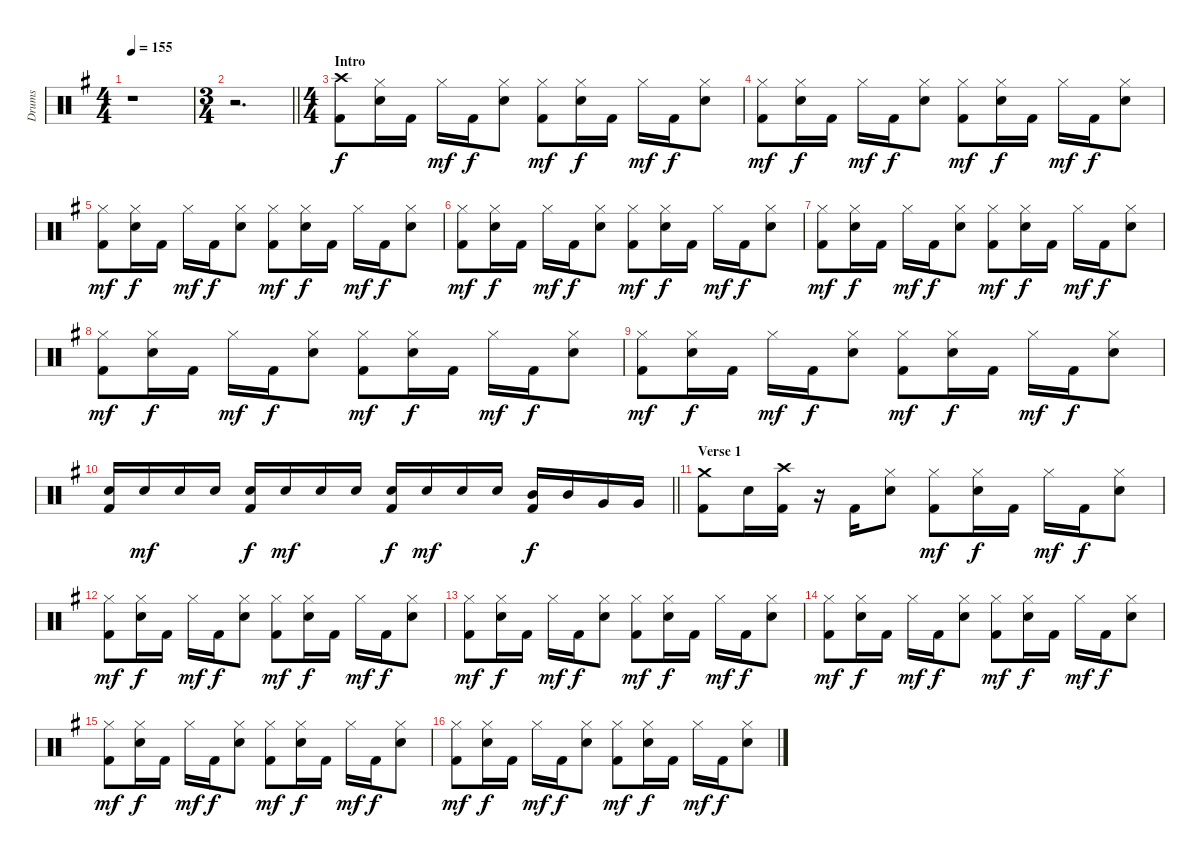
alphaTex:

\track ("Drums" "Drums") {instrument percussion}
\staff {score}
\articulation defaults
\ts (4 4)
\tempo 155
\clef neutral
\ks g
r.1{dy f} |
\ts (3 4)
\barLineRight lightlight
r.2{d} |
\ts (4 4)
\section ("" "Intro")
("Crash high (hit)" "Kick (hit) 2").8 ("Hi-Hat (closed)" "Electric Snare (hit)").16 "Kick (hit) 2".16 "Hi-Hat (closed)".16{dy mf} "Kick (hit) 2".16{dy f} ("Hi-Hat (closed)" "Electric Snare (hit)").8 ("Hi-Hat (closed)" "Kick (hit) 2").8{dy mf} ("Hi-Hat (closed)" "Electric Snare (hit)").16{dy f} "Kick (hit) 2".16 "Hi-Hat (closed)".16{dy mf} "Kick (hit) 2".16{dy f} ("Hi-Hat (closed)" "Electric Snare (hit)").8 |
("Hi-Hat (closed)" "Kick (hit) 2").8{dy mf} ("Hi-Hat (closed)" "Electric Snare (hit)").16{dy f} "Kick (hit) 2".16 "Hi-Hat (closed)".16{dy mf} "Kick (hit) 2".16{dy f} ("Hi-Hat (closed)" "Electric Snare (hit)").8 ("Hi-Hat (closed)" "Kick (hit) 2").8{dy mf} ("Hi-Hat (closed)" "Electric Snare (hit)").16{dy f} "Kick (hit) 2".16 "Hi-Hat (closed)".16{dy mf} "Kick (hit) 2".16{dy f} ("Hi-Hat (closed)" "Electric Snare (hit)").8 |
("Hi-Hat (closed)" "Kick (hit) 2").8{dy mf} ("Hi-Hat (closed)" "Electric Snare (hit)").16{dy f} "Kick (hit) 2".16 "Hi-Hat (closed)".16{dy mf} "Kick (hit) 2".16{dy f} ("Hi-Hat (closed)" "Electric Snare (hit)").8 ("Hi-Hat (closed)" "Kick (hit) 2").8{dy mf} ("Hi-Hat (closed)" "Electric Snare (hit)").16{dy f} "Kick (hit) 2".16 "Hi-Hat (closed)".16{dy mf} "Kick (hit) 2".16{dy f} ("Hi-Hat (closed)" "Electric Snare (hit)").8 |
("Hi-Hat (closed)" "Kick (hit) 2").8{dy mf} ("Hi-Hat (closed)" "Electric Snare (hit)").16{dy f} "Kick (hit) 2".16 "Hi-Hat (closed)".16{dy mf} "Kick (hit) 2".16{dy f} ("Hi-Hat (closed)" "Electric Snare (hit)").8 ("Hi-Hat (closed)" "Kick (hit) 2").8{dy mf} ("Hi-Hat (closed)" "Electric Snare (hit)").16{dy f} "Kick (hit) 2".16 "Hi-Hat (closed)".16{dy mf} "Kick (hit) 2".16{dy f} ("Hi-Hat (closed)" "Electric Snare (hit)").8 |
("Hi-Hat (closed)" "Kick (hit) 2").8{dy mf} ("Hi-Hat (closed)" "Electric Snare (hit)").16{dy f} "Kick (hit) 2".16 "Hi-Hat (closed)".16{dy mf} "Kick (hit) 2".16{dy f} ("Hi-Hat (closed)" "Electric Snare (hit)").8 ("Hi-Hat (closed)" "Kick (hit) 2").8{dy mf} ("Hi-Hat (closed)" "Electric Snare (hit)").16{dy f} "Kick (hit) 2".16 "Hi-Hat (closed)".16{dy mf} "Kick (hit) 2".16{dy f} ("Hi-Hat (closed)" "Electric Snare (hit)").8 |
("Hi-Hat (closed)" "Kick (hit) 2").8{dy mf} ("Hi-Hat (closed)" "Electric Snare (hit)").16{dy f} "Kick (hit) 2".16 "Hi-Hat (closed)".16{dy mf} "Kick (hit) 2".16{dy f} ("Hi-Hat (closed)" "Electric Snare (hit)").8 ("Hi-Hat (closed)" "Kick (hit) 2").8{dy mf} ("Hi-Hat (closed)" "Electric Snare (hit)").16{dy f} "Kick (hit) 2".16 "Hi-Hat (closed)".16{dy mf} "Kick (hit) 2".16{dy f} ("Hi-Hat (closed)" "Electric Snare (hit)").8 |
("Hi-Hat (closed)" "Kick (hit) 2").8{dy mf} ("Hi-Hat (closed)" "Electric Snare (hit)").16{dy f} "Kick (hit) 2".16 "Hi-Hat (closed)".16{dy mf} "Kick (hit) 2".16{dy f} ("Hi-Hat (closed)" "Electric Snare (hit)").8 ("Hi-Hat (closed)" "Kick (hit) 2").8{dy mf} ("Hi-Hat (closed)" "Electric Snare (hit)").16{dy f} "Kick (hit) 2".16 "Hi-Hat (closed)".16{dy mf} "Kick (hit) 2".16{dy f} ("Hi-Hat (closed)" "Electric Snare (hit)").8 |
\barLineRight lightlight
("Electric Snare (hit)" "Kick (hit) 2").16 "Electric Snare (hit)".16{dy mf} "Electric Snare (hit)".16 "Electric Snare (hit)".16 ("Electric Snare (hit)" "Kick (hit) 2").16{dy f} "Electric Snare (hit)".16{dy mf} "Electric Snare (hit)".16 "Electric Snare (hit)".16 ("Electric Snare (hit)" "Kick (hit) 2").16{dy f} "Electric Snare (hit)".16{dy mf} "Electric Snare (hit)".16 "Electric Snare (hit)".16 ("Mid Tom (hit)" "Kick (hit) 2").16{dy f} "Mid Tom (hit)".16 "Very Low Tom (hit)".16 "Very Low Tom (hit)".16 |
\section ("" "Verse 1")
("Crash medium (hit)" "Kick (hit) 2").8 "Electric Snare (hit)".16 ("Crash high (hit)" "Kick (hit) 2").16 r.16 "Kick (hit) 2".16 ("Hi-Hat (closed)" "Electric Snare (hit)").8 ("Hi-Hat (closed)" "Kick (hit) 2").8{dy mf} ("Hi-Hat (closed)" "Electric Snare (hit)").16{dy f} "Kick (hit) 2".16 "Hi-Hat (closed)".16{dy mf} "Kick (hit) 2".16{dy f} ("Hi-Hat (closed)" "Electric Snare (hit)").8 |
("Hi-Hat (closed)" "Kick (hit) 2").8{dy mf} ("Hi-Hat (closed)" "Electric Snare (hit)").16{dy f} "Kick (hit) 2".16 "Hi-Hat (closed)".16{dy mf} "Kick (hit) 2".16{dy f} ("Hi-Hat (closed)" "Electric Snare (hit)").8 ("Hi-Hat (closed)" "Kick (hit) 2").8{dy mf} ("Hi-Hat (closed)" "Electric Snare (hit)").16{dy f} "Kick (hit) 2".16 "Hi-Hat (closed)".16{dy mf} "Kick (hit) 2".16{dy f} ("Hi-Hat (closed)" "Electric Snare (hit)").8 |
("Hi-Hat (closed)" "Kick (hit) 2").8{dy mf} ("Hi-Hat (closed)" "Electric Snare (hit)").16{dy f} "Kick (hit) 2".16 "Hi-Hat (closed)".16{dy mf} "Kick (hit) 2".16{dy f} ("Hi-Hat (closed)" "Electric Snare (hit)").8 ("Hi-Hat (closed)" "Kick (hit) 2").8{dy mf} ("Hi-Hat (closed)" "Electric Snare (hit)").16{dy f} "Kick (hit) 2".16 "Hi-Hat (closed)".16{dy mf} "Kick (hit) 2".16{dy f} ("Hi-Hat (closed)" "Electric Snare (hit)").8 |
("Hi-Hat (closed)" "Kick (hit) 2").8{dy mf} ("Hi-Hat (closed)" "Electric Snare (hit)").16{dy f} "Kick (hit) 2".16 "Hi-Hat (closed)".16{dy mf} "Kick (hit) 2".16{dy f} ("Hi-Hat (closed)" "Electric Snare (hit)").8 ("Hi-Hat (closed)" "Kick (hit) 2").8{dy mf} ("Hi-Hat (closed)" "Electric Snare (hit)").16{dy f} "Kick (hit) 2".16 "Hi-Hat (closed)".16{dy mf} "Kick (hit) 2".16{dy f} ("Hi-Hat (closed)" "Electric Snare (hit)").8 |
("Hi-Hat (closed)" "Kick (hit) 2").8{dy mf} ("Hi-Hat (closed)" "Electric Snare (hit)").16{dy f} "Kick (hit) 2".16 "Hi-Hat (closed)".16{dy mf} "Kick (hit) 2".16{dy f} ("Hi-Hat (closed)" "Electric Snare (hit)").8 ("Hi-Hat (closed)" "Kick (hit) 2").8{dy mf} ("Hi-Hat (closed)" "Electric Snare (hit)").16{dy f} "Kick (hit) 2".16 "Hi-Hat (closed)".16{dy mf} "Kick (hit) 2".16{dy f} ("Hi-Hat (closed)" "Electric Snare (hit)").8 |
("Hi-Hat (closed)" "Kick (hit) 2").8{dy mf} ("Hi-Hat (closed)" "Electric Snare (hit)").16{dy f} "Kick (hit) 2".16 "Hi-Hat (closed)".16{dy mf} "Kick (hit) 2".16{dy f} ("Hi-Hat (closed)" "Electric Snare (hit)").8 ("Hi-Hat (closed)" "Kick (hit) 2").8{dy mf} ("Hi-Hat (closed)" "Electric Snare (hit)").16{dy f} "Kick (hit) 2".16 "Hi-Hat (closed)".16{dy mf} "Kick (hit) 2".16{dy f} ("Hi-Hat (closed)" "Electric Snare (hit)").8
